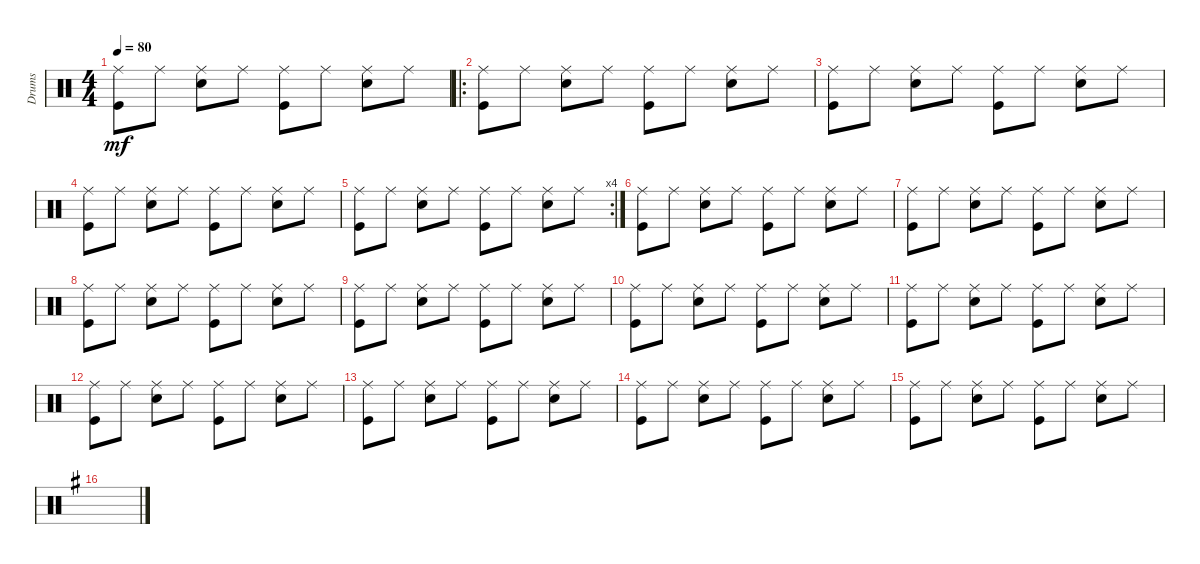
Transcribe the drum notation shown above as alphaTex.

\track ("Drums" "Drums") {instrument percussion}
\staff {score}
\articulation defaults
\ts (4 4)
\tempo 80
\clef neutral
\ks c
("Ride (middle)" "Kick (hit)").8{dy mf} "Ride (middle)".8 ("Ride (middle)" "Snare (hit) 2").8 "Ride (middle)".8 ("Ride (middle)" "Kick (hit)").8 "Ride (middle)".8 ("Ride (middle)" "Snare (hit) 2").8 "Ride (middle)".8 |
\ro
("Ride (middle)" "Kick (hit)").8 "Ride (middle)".8 ("Ride (middle)" "Snare (hit) 2").8 "Ride (middle)".8 ("Ride (middle)" "Kick (hit)").8 "Ride (middle)".8 ("Ride (middle)" "Snare (hit) 2").8 "Ride (middle)".8 |
("Ride (middle)" "Kick (hit)").8 "Ride (middle)".8 ("Ride (middle)" "Snare (hit) 2").8 "Ride (middle)".8 ("Ride (middle)" "Kick (hit)").8 "Ride (middle)".8 ("Ride (middle)" "Snare (hit) 2").8 "Ride (middle)".8 |
("Ride (middle)" "Kick (hit)").8 "Ride (middle)".8 ("Ride (middle)" "Snare (hit) 2").8 "Ride (middle)".8 ("Ride (middle)" "Kick (hit)").8 "Ride (middle)".8 ("Ride (middle)" "Snare (hit) 2").8 "Ride (middle)".8 |
\rc 4
("Ride (middle)" "Kick (hit)").8 "Ride (middle)".8 ("Ride (middle)" "Snare (hit) 2").8 "Ride (middle)".8 ("Ride (middle)" "Kick (hit)").8 "Ride (middle)".8 ("Ride (middle)" "Snare (hit) 2").8 "Ride (middle)".8 |
("Ride (middle)" "Kick (hit)").8 "Ride (middle)".8 ("Ride (middle)" "Snare (hit) 2").8 "Ride (middle)".8 ("Ride (middle)" "Kick (hit)").8 "Ride (middle)".8 ("Ride (middle)" "Snare (hit) 2").8 "Ride (middle)".8 |
("Ride (middle)" "Kick (hit)").8 "Ride (middle)".8 ("Ride (middle)" "Snare (hit) 2").8 "Ride (middle)".8 ("Ride (middle)" "Kick (hit)").8 "Ride (middle)".8 ("Ride (middle)" "Snare (hit) 2").8 "Ride (middle)".8 |
("Ride (middle)" "Kick (hit)").8 "Ride (middle)".8 ("Ride (middle)" "Snare (hit) 2").8 "Ride (middle)".8 ("Ride (middle)" "Kick (hit)").8 "Ride (middle)".8 ("Ride (middle)" "Snare (hit) 2").8 "Ride (middle)".8 |
("Ride (middle)" "Kick (hit)").8 "Ride (middle)".8 ("Ride (middle)" "Snare (hit) 2").8 "Ride (middle)".8 ("Ride (middle)" "Kick (hit)").8 "Ride (middle)".8 ("Ride (middle)" "Snare (hit) 2").8 "Ride (middle)".8 |
("Ride (middle)" "Kick (hit)").8 "Ride (middle)".8 ("Ride (middle)" "Snare (hit) 2").8 "Ride (middle)".8 ("Ride (middle)" "Kick (hit)").8 "Ride (middle)".8 ("Ride (middle)" "Snare (hit) 2").8 "Ride (middle)".8 |
("Ride (middle)" "Kick (hit)").8 "Ride (middle)".8 ("Ride (middle)" "Snare (hit) 2").8 "Ride (middle)".8 ("Ride (middle)" "Kick (hit)").8 "Ride (middle)".8 ("Ride (middle)" "Snare (hit) 2").8 "Ride (middle)".8 |
("Ride (middle)" "Kick (hit)").8 "Ride (middle)".8 ("Ride (middle)" "Snare (hit) 2").8 "Ride (middle)".8 ("Ride (middle)" "Kick (hit)").8 "Ride (middle)".8 ("Ride (middle)" "Snare (hit) 2").8 "Ride (middle)".8 |
("Ride (middle)" "Kick (hit)").8 "Ride (middle)".8 ("Ride (middle)" "Snare (hit) 2").8 "Ride (middle)".8 ("Ride (middle)" "Kick (hit)").8 "Ride (middle)".8 ("Ride (middle)" "Snare (hit) 2").8 "Ride (middle)".8 |
("Ride (middle)" "Kick (hit)").8 "Ride (middle)".8 ("Ride (middle)" "Snare (hit) 2").8 "Ride (middle)".8 ("Ride (middle)" "Kick (hit)").8 "Ride (middle)".8 ("Ride (middle)" "Snare (hit) 2").8 "Ride (middle)".8 |
("Ride (middle)" "Kick (hit)").8 "Ride (middle)".8 ("Ride (middle)" "Snare (hit) 2").8 "Ride (middle)".8 ("Ride (middle)" "Kick (hit)").8 "Ride (middle)".8 ("Ride (middle)" "Snare (hit) 2").8 "Ride (middle)".8 |
\ks g
